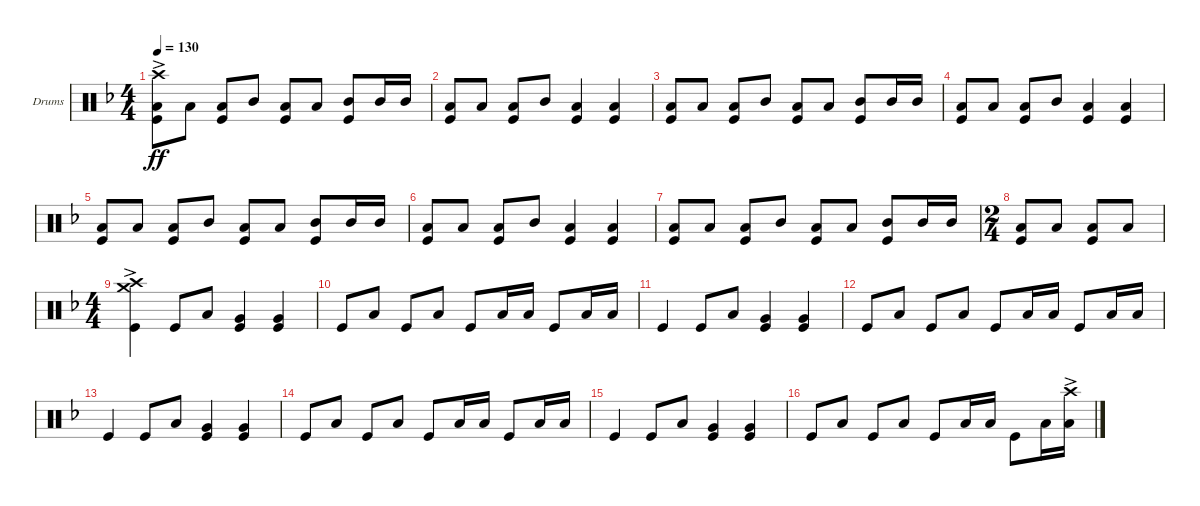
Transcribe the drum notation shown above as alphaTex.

\defaultSystemsLayout 4
\bracketExtendMode groupsimilarinstruments
\firstSystemTrackNameOrientation horizontal
\otherSystemsTrackNameOrientation horizontal
\track ("Drumkit" "Drums") {instrument percussion}
\staff {score}
\articulation defaults
\ts (4 4)
\section ("" "")
\tempo 130
\clef neutral
\ks f
("Kick (hit)" "Low Tom (hit)" "Crash high (hit)"{ac}).8{dy ff} "Low Tom (hit)".8 ("Low Tom (hit)" "Kick (hit)").8 "Mid Tom (hit)".8 ("Low Tom (hit)" "Kick (hit)").8 "Low Tom (hit)".8 ("Mid Tom (hit)" "Kick (hit)").8 "Mid Tom (hit)".16 "Mid Tom (hit)".16 |
("Kick (hit)" "Low Tom (hit)").8 "Low Tom (hit)".8 ("Kick (hit)" "Low Tom (hit)").8 "Mid Tom (hit)".8 ("Low Tom (hit)" "Kick (hit)").4 ("Low Tom (hit)" "Kick (hit)").4 |
("Kick (hit)" "Low Tom (hit)").8 "Low Tom (hit)".8 ("Low Tom (hit)" "Kick (hit)").8 "Mid Tom (hit)".8 ("Low Tom (hit)" "Kick (hit)").8 "Low Tom (hit)".8 ("Mid Tom (hit)" "Kick (hit)").8 "Mid Tom (hit)".16 "Mid Tom (hit)".16 |
("Kick (hit)" "Low Tom (hit)").8 "Low Tom (hit)".8 ("Kick (hit)" "Low Tom (hit)").8 "Mid Tom (hit)".8 ("Low Tom (hit)" "Kick (hit)").4 ("Low Tom (hit)" "Kick (hit)").4 |
("Kick (hit)" "Low Tom (hit)").8 "Low Tom (hit)".8 ("Low Tom (hit)" "Kick (hit)").8 "Mid Tom (hit)".8 ("Low Tom (hit)" "Kick (hit)").8 "Low Tom (hit)".8 ("Mid Tom (hit)" "Kick (hit)").8 "Mid Tom (hit)".16 "Mid Tom (hit)".16 |
("Kick (hit)" "Low Tom (hit)").8 "Low Tom (hit)".8 ("Kick (hit)" "Low Tom (hit)").8 "Mid Tom (hit)".8 ("Low Tom (hit)" "Kick (hit)").4 ("Low Tom (hit)" "Kick (hit)").4 |
("Kick (hit)" "Low Tom (hit)").8 "Low Tom (hit)".8 ("Low Tom (hit)" "Kick (hit)").8 "Mid Tom (hit)".8 ("Low Tom (hit)" "Kick (hit)").8 "Low Tom (hit)".8 ("Mid Tom (hit)" "Kick (hit)").8 "Mid Tom (hit)".16 "Mid Tom (hit)".16 |
\ts (2 4)
("Kick (hit)" "Low Tom (hit)").8 "Low Tom (hit)".8 ("Low Tom (hit)" "Kick (hit)").8 "Low Tom (hit)".8 |
\ts (4 4)
\section ("" "")
("Kick (hit)" "Crash high (hit)"{ac} "Crash medium (hit)"{ac}).4 "Kick (hit)".8 "Low Tom (hit)".8 ("Very Low Tom (hit)" "Kick (hit)").4 ("Very Low Tom (hit)" "Kick (hit)").4 |
"Kick (hit)".8 "Low Tom (hit)".8 "Kick (hit)".8 "Low Tom (hit)".8 "Kick (hit)".8 "Low Tom (hit)".16 "Low Tom (hit)".16 "Kick (hit)".8 "Low Tom (hit)".16 "Low Tom (hit)".16 |
"Kick (hit)".4 "Kick (hit)".8 "Low Tom (hit)".8 ("Very Low Tom (hit)" "Kick (hit)").4 ("Very Low Tom (hit)" "Kick (hit)").4 |
"Kick (hit)".8 "Low Tom (hit)".8 "Kick (hit)".8 "Low Tom (hit)".8 "Kick (hit)".8 "Low Tom (hit)".16 "Low Tom (hit)".16 "Kick (hit)".8 "Low Tom (hit)".16 "Low Tom (hit)".16 |
"Kick (hit)".4 "Kick (hit)".8 "Low Tom (hit)".8 ("Very Low Tom (hit)" "Kick (hit)").4 ("Very Low Tom (hit)" "Kick (hit)").4 |
"Kick (hit)".8 "Low Tom (hit)".8 "Kick (hit)".8 "Low Tom (hit)".8 "Kick (hit)".8 "Low Tom (hit)".16 "Low Tom (hit)".16 "Kick (hit)".8 "Low Tom (hit)".16 "Low Tom (hit)".16 |
"Kick (hit)".4 "Kick (hit)".8 "Low Tom (hit)".8 ("Very Low Tom (hit)" "Kick (hit)").4 ("Very Low Tom (hit)" "Kick (hit)").4 |
"Kick (hit)".8 "Low Tom (hit)".8 "Kick (hit)".8 "Low Tom (hit)".8 "Kick (hit)".8 "Low Tom (hit)".16 "Low Tom (hit)".16 "Kick (hit)".8 "Low Tom (hit)".16 ("Low Tom (hit)" "Crash high (hit)"{ac}).16
